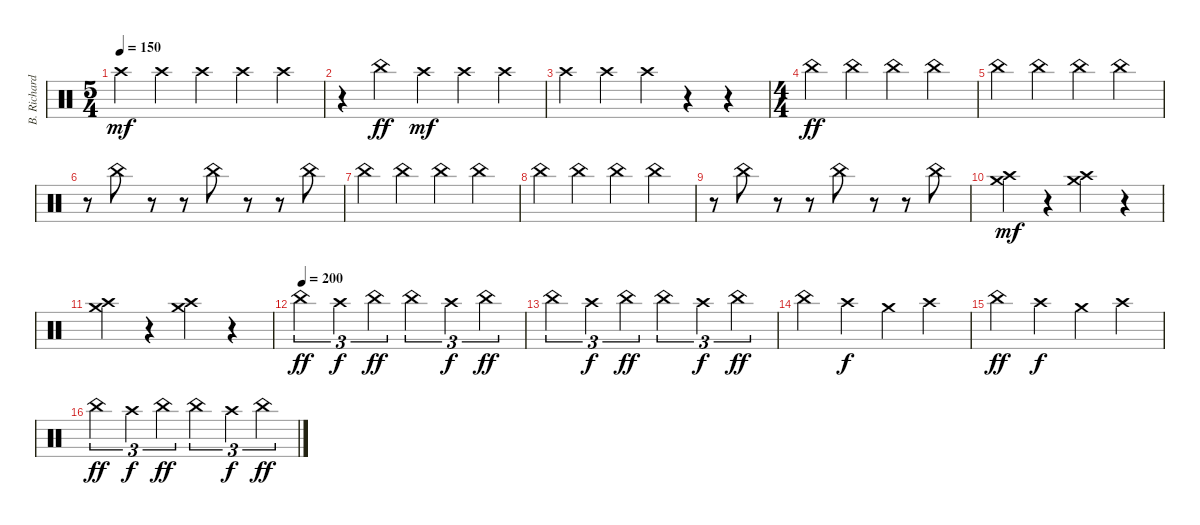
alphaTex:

\track ("B. Richardson Drums" "B. Richard") {instrument percussion}
\staff {score}
\articulation defaults
\ts (5 4)
\tempo 150
\clef neutral
\ks c "Crash high (hit)".4{dy mf} "Crash high (hit)".4 "Crash high (hit)".4 "Crash high (hit)".4 "Crash high (hit)".4
|
r.4 "China (hit)".4{dy ff} "Crash high (hit)".4{dy mf} "Crash high (hit)".4 "Crash high (hit)".4 |
"Crash high (hit)".4 "Crash high (hit)".4 "Crash high (hit)".4 r.4 r.4 |
\ts (4 4)
"China (hit)".4{dy ff} "China (hit)".4 "China (hit)".4 "China (hit)".4 |
"China (hit)".4 "China (hit)".4 "China (hit)".4 "China (hit)".4 |
r.8 "China (hit)".8 r.8 r.8 "China (hit)".8 r.8 r.8 "China (hit)".8 |
"China (hit)".4 "China (hit)".4 "China (hit)".4 "China (hit)".4 |
"China (hit)".4 "China (hit)".4 "China (hit)".4 "China (hit)".4 |
r.8 "China (hit)".8 r.8 r.8 "China (hit)".8 r.8 r.8 "China (hit)".8 |
("Crash high (hit)" "Crash medium (hit)").4{dy mf} r.4 ("Crash high (hit)" "Crash medium (hit)").4 r.4 |
("Crash high (hit)" "Crash medium (hit)").4 r.4 ("Crash high (hit)" "Crash medium (hit)").4 r.4 |
\tempo (200)
"China (hit)".4{tu (3 2) dy ff} "Crash high (hit)".4{tu (3 2) dy f} "China (hit)".4{tu (3 2) dy ff} "China (hit)".4{tu (3 2)} "Crash high (hit)".4{tu (3 2) dy f} "China (hit)".4{tu (3 2) dy ff} |
"China (hit)".4{tu (3 2)} "Crash high (hit)".4{tu (3 2) dy f} "China (hit)".4{tu (3 2) dy ff} "China (hit)".4{tu (3 2)} "Crash high (hit)".4{tu (3 2) dy f} "China (hit)".4{tu (3 2) dy ff} |
"China (hit)".4 "Crash high (hit)".4{dy f} "Crash medium (hit)".4 "Crash high (hit)".4 |
"China (hit)".4{dy ff} "Crash high (hit)".4{dy f} "Crash medium (hit)".4 "Crash high (hit)".4 |
"China (hit)".4{tu (3 2) dy ff} "Crash high (hit)".4{tu (3 2) dy f} "China (hit)".4{tu (3 2) dy ff} "China (hit)".4{tu (3 2)} "Crash high (hit)".4{tu (3 2) dy f} "China (hit)".4{tu (3 2) dy ff}
